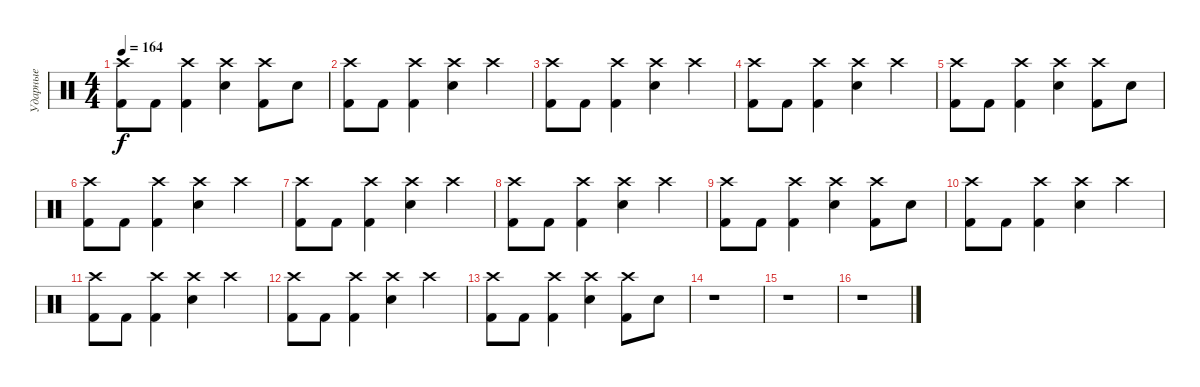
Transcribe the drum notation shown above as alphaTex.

\track ("Ударные" "Ударные") {instrument percussion}
\staff {score}
\articulation defaults
\ts (4 4)
\tempo 164
\clef neutral
\ks c
("Crash high (hit)" "Kick (hit) 2").8{dy f} "Kick (hit) 2".8 ("Crash high (hit)" "Kick (hit) 2").4 ("Crash high (hit)" "Snare (hit) 2").4 ("Crash high (hit)" "Kick (hit) 2").8 "Snare (hit) 2".8 |
("Crash high (hit)" "Kick (hit) 2").8 "Kick (hit) 2".8 ("Crash high (hit)" "Kick (hit) 2").4 ("Crash high (hit)" "Snare (hit) 2").4 "Crash high (hit)".4 |
("Crash high (hit)" "Kick (hit) 2").8 "Kick (hit) 2".8 ("Crash high (hit)" "Kick (hit) 2").4 ("Crash high (hit)" "Snare (hit) 2").4 "Crash high (hit)".4 |
("Crash high (hit)" "Kick (hit) 2").8 "Kick (hit) 2".8 ("Crash high (hit)" "Kick (hit) 2").4 ("Crash high (hit)" "Snare (hit) 2").4 "Crash high (hit)".4 |
("Crash high (hit)" "Kick (hit) 2").8 "Kick (hit) 2".8 ("Crash high (hit)" "Kick (hit) 2").4 ("Crash high (hit)" "Snare (hit) 2").4 ("Crash high (hit)" "Kick (hit) 2").8 "Snare (hit) 2".8 |
("Crash high (hit)" "Kick (hit) 2").8 "Kick (hit) 2".8 ("Crash high (hit)" "Kick (hit) 2").4 ("Crash high (hit)" "Snare (hit) 2").4 "Crash high (hit)".4 |
("Crash high (hit)" "Kick (hit) 2").8 "Kick (hit) 2".8 ("Crash high (hit)" "Kick (hit) 2").4 ("Crash high (hit)" "Snare (hit) 2").4 "Crash high (hit)".4 |
("Crash high (hit)" "Kick (hit) 2").8 "Kick (hit) 2".8 ("Crash high (hit)" "Kick (hit) 2").4 ("Crash high (hit)" "Snare (hit) 2").4 "Crash high (hit)".4 |
("Crash high (hit)" "Kick (hit) 2").8 "Kick (hit) 2".8 ("Crash high (hit)" "Kick (hit) 2").4 ("Crash high (hit)" "Snare (hit) 2").4 ("Crash high (hit)" "Kick (hit) 2").8 "Snare (hit) 2".8 |
("Crash high (hit)" "Kick (hit) 2").8 "Kick (hit) 2".8 ("Crash high (hit)" "Kick (hit) 2").4 ("Crash high (hit)" "Snare (hit) 2").4 "Crash high (hit)".4 |
("Crash high (hit)" "Kick (hit) 2").8 "Kick (hit) 2".8 ("Crash high (hit)" "Kick (hit) 2").4 ("Crash high (hit)" "Snare (hit) 2").4 "Crash high (hit)".4 |
("Crash high (hit)" "Kick (hit) 2").8 "Kick (hit) 2".8 ("Crash high (hit)" "Kick (hit) 2").4 ("Crash high (hit)" "Snare (hit) 2").4 "Crash high (hit)".4 |
("Crash high (hit)" "Kick (hit) 2").8 "Kick (hit) 2".8 ("Crash high (hit)" "Kick (hit) 2").4 ("Crash high (hit)" "Snare (hit) 2").4 ("Crash high (hit)" "Kick (hit) 2").8 "Snare (hit) 2".8 |
r.1 |
r.1 |
r.1
